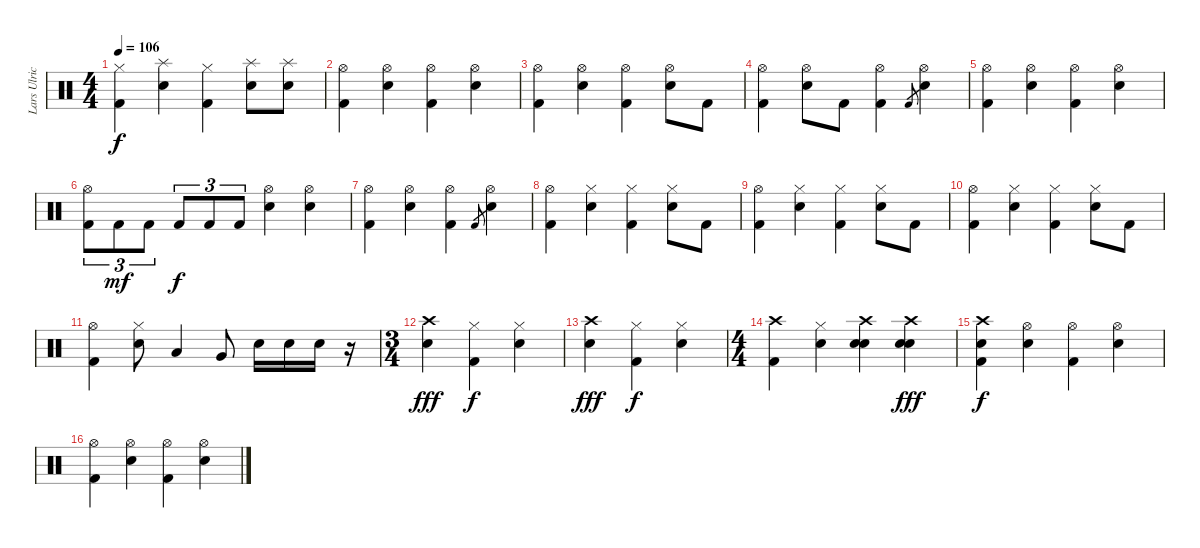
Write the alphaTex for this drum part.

\track ("Lars Ulrich [Drums]" "Lars Ulric") {instrument percussion}
\staff {score}
\articulation defaults
\ts (4 4)
\tempo 106
\clef neutral
\ks c
("Hi-Hat (closed)" "Kick (hit) 2").4{dy f} ("Splash (hit)" "Electric Snare (hit)").4 ("Hi-Hat (closed)" "Kick (hit) 2").4 ("Splash (hit)" "Electric Snare (hit)").8 ("Splash (hit)" "Electric Snare (hit)").8 |
("Hi-Hat (open)" "Kick (hit) 2").4 ("Hi-Hat (open)" "Electric Snare (hit)").4 ("Hi-Hat (open)" "Kick (hit) 2").4 ("Hi-Hat (open)" "Electric Snare (hit)").4 |
("Hi-Hat (open)" "Kick (hit) 2").4 ("Hi-Hat (open)" "Electric Snare (hit)").4 ("Hi-Hat (open)" "Kick (hit) 2").4 ("Hi-Hat (open)" "Electric Snare (hit)").8 "Kick (hit) 2".8 |
("Hi-Hat (open)" "Kick (hit) 2").4 ("Hi-Hat (open)" "Electric Snare (hit)").8 "Kick (hit) 2".8 ("Hi-Hat (open)" "Kick (hit) 2").4 "Kick (hit) 2".8{gr} ("Hi-Hat (open)" "Electric Snare (hit)").4 |
("Hi-Hat (open)" "Kick (hit) 2").4 ("Hi-Hat (open)" "Electric Snare (hit)").4 ("Hi-Hat (open)" "Kick (hit) 2").4 ("Hi-Hat (open)" "Electric Snare (hit)").4 |
("Hi-Hat (open)" "Kick (hit) 2").8{tu (3 2)} "Kick (hit) 2".8{tu (3 2) dy mf} "Kick (hit) 2".8{tu (3 2)} "Kick (hit) 2".8{tu (3 2) dy f} "Kick (hit) 2".8{tu (3 2)} "Kick (hit) 2".8{tu (3 2)} ("Hi-Hat (open)" "Electric Snare (hit)").4 ("Hi-Hat (open)" "Electric Snare (hit)").4 |
("Hi-Hat (open)" "Kick (hit) 2").4 ("Hi-Hat (open)" "Electric Snare (hit)").4 ("Hi-Hat (open)" "Kick (hit) 2").4 "Kick (hit) 2".8{gr} ("Hi-Hat (open)" "Electric Snare (hit)").4 |
("Hi-Hat (open)" "Kick (hit) 2").4 ("Hi-Hat (closed)" "Electric Snare (hit)").4 ("Hi-Hat (closed)" "Kick (hit) 2").4 ("Hi-Hat (closed)" "Electric Snare (hit)").8 "Kick (hit) 2".8 |
("Hi-Hat (open)" "Kick (hit) 2").4 ("Hi-Hat (closed)" "Electric Snare (hit)").4 ("Hi-Hat (closed)" "Kick (hit) 2").4 ("Hi-Hat (closed)" "Electric Snare (hit)").8 "Kick (hit) 2".8 |
("Hi-Hat (open)" "Kick (hit) 2").4 ("Hi-Hat (closed)" "Electric Snare (hit)").4 ("Hi-Hat (closed)" "Kick (hit) 2").4 ("Hi-Hat (closed)" "Electric Snare (hit)").8 "Kick (hit) 2".8 |
("Hi-Hat (open)" "Kick (hit) 2").4 ("Hi-Hat (closed)" "Electric Snare (hit)").8 "Low Tom (hit)".4 "Very Low Tom (hit)".8 "Electric Snare (hit)".16 "Electric Snare (hit)".16 "Electric Snare (hit)".16 r.16 |
\ts (3 4)
("Crash high (hit)" "Electric Snare (hit)").4{dy fff} ("Hi-Hat (closed)" "Kick (hit) 2").4{dy f} ("Hi-Hat (closed)" "Electric Snare (hit)").4 |
("Crash high (hit)" "Electric Snare (hit)").4{dy fff} ("Hi-Hat (closed)" "Kick (hit) 2").4{dy f} ("Hi-Hat (closed)" "Electric Snare (hit)").4 |
\ts (4 4)
("Crash high (hit)" "Kick (hit) 2").4 ("Hi-Hat (closed)" "Electric Snare (hit)").4 ("Crash high (hit)" "Electric Snare (hit)" "Snare (hit) 2").4 ("Crash high (hit)" "Electric Snare (hit)" "Snare (hit) 2").4{dy fff} |
("Crash high (hit)" "Electric Snare (hit)" "Kick (hit) 2").4{dy f} ("Hi-Hat (open)" "Electric Snare (hit)").4 ("Hi-Hat (open)" "Kick (hit) 2").4 ("Hi-Hat (open)" "Electric Snare (hit)").4 |
("Hi-Hat (open)" "Kick (hit) 2").4 ("Hi-Hat (open)" "Electric Snare (hit)").4 ("Hi-Hat (open)" "Kick (hit) 2").4 ("Hi-Hat (open)" "Electric Snare (hit)").4
